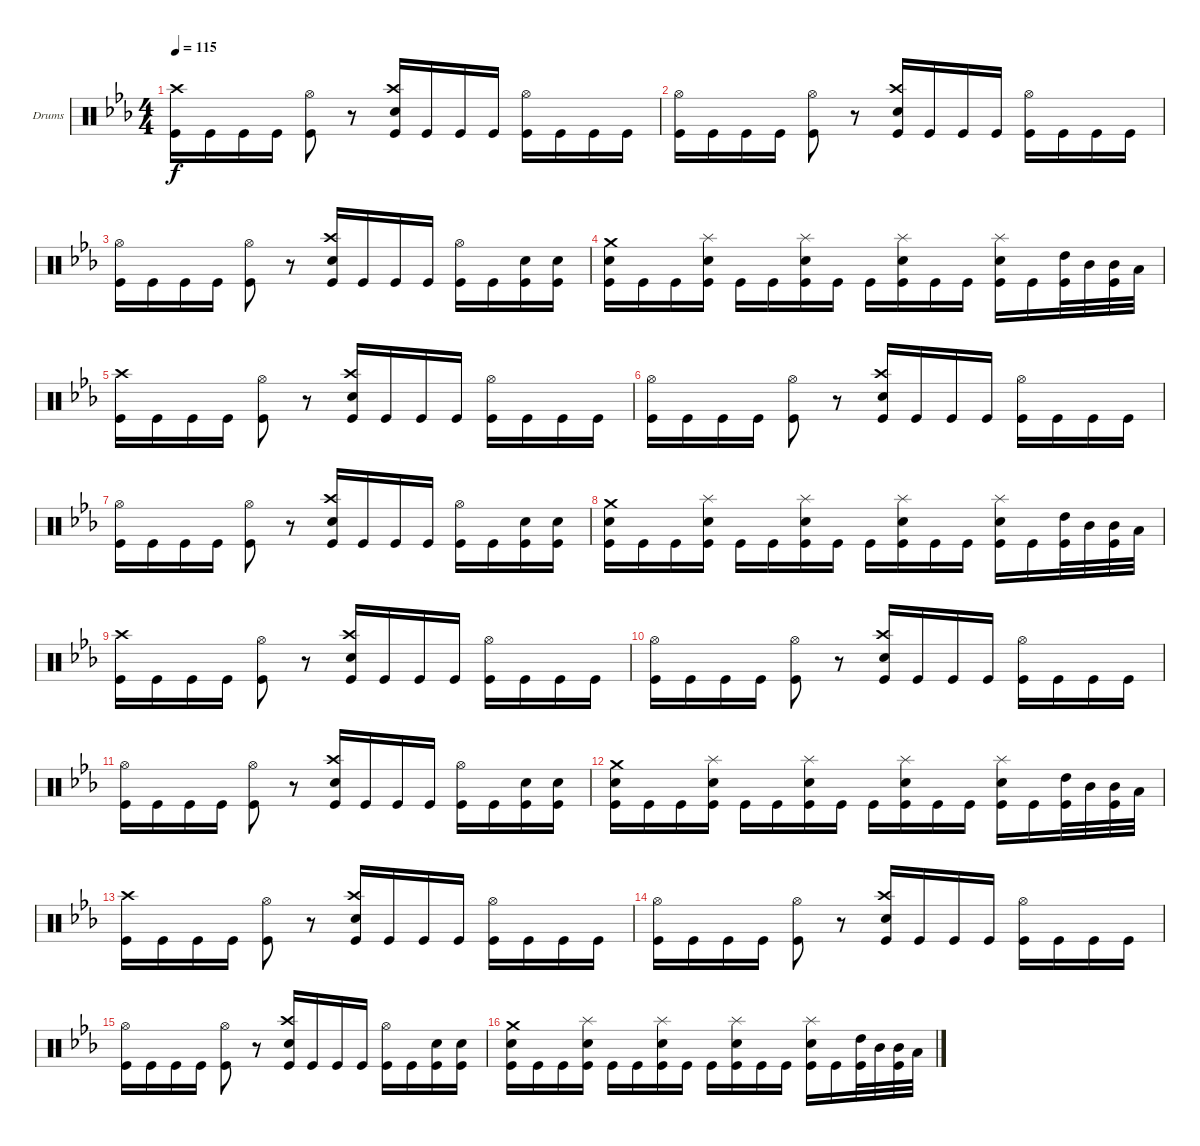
\bracketExtendMode groupsimilarinstruments
\firstSystemTrackNameOrientation horizontal
\otherSystemsTrackNameOrientation horizontal
\track ("Drumkit" "Drums") {instrument percussion}
\staff {score}
\articulation defaults
\ts (4 4)
\tempo 115
\clef neutral
\ks cminor
("Kick (hit)" "Crash high (hit)").16{dy f} "Kick (hit)".16 "Kick (hit)".16 "Kick (hit)".16 ("Kick (hit)" "Hi-Hat (open)").8 r.8 ("Kick (hit)" "Snare (hit) 2" "Crash high (hit)").16 "Kick (hit)".16 "Kick (hit)".16 "Kick (hit)".16 ("Kick (hit)" "Hi-Hat (open)").16 "Kick (hit)".16 "Kick (hit)".16 "Kick (hit)".16 |
("Kick (hit)" "Hi-Hat (open)").16 "Kick (hit)".16 "Kick (hit)".16 "Kick (hit)".16 ("Kick (hit)" "Hi-Hat (open)").8 r.8 ("Kick (hit)" "Snare (hit) 2" "Crash high (hit)").16 "Kick (hit)".16 "Kick (hit)".16 "Kick (hit)".16 ("Kick (hit)" "Hi-Hat (open)").16 "Kick (hit)".16 "Kick (hit)".16 "Kick (hit)".16 |
("Kick (hit)" "Hi-Hat (open)").16 "Kick (hit)".16 "Kick (hit)".16 "Kick (hit)".16 ("Kick (hit)" "Hi-Hat (open)").8 r.8 ("Kick (hit)" "Snare (hit) 2" "Crash high (hit)").16 "Kick (hit)".16 "Kick (hit)".16 "Kick (hit)".16 ("Kick (hit)" "Hi-Hat (open)").16 "Kick (hit)".16 ("Kick (hit)" "Snare (hit) 2").16 ("Kick (hit)" "Snare (hit) 2").16 |
("Kick (hit)" "Snare (hit) 2" "Crash medium (hit)").16 "Kick (hit)".16 "Kick (hit)".16 ("Kick (hit)" "Snare (hit) 2" "Splash (hit)").16 "Kick (hit)".16 "Kick (hit)".16 ("Kick (hit)" "Snare (hit) 2" "Splash (hit)").16 "Kick (hit)".16 "Kick (hit)".16 ("Kick (hit)" "Snare (hit) 2" "Splash (hit)").16 "Kick (hit)".16 "Kick (hit)".16 ("Kick (hit)" "Snare (hit) 2" "Splash (hit)").16 "Kick (hit)".16 ("Kick (hit)" "High Tom (hit)").32 "Mid Tom (hit)".32 ("Kick (hit)" "Mid Tom (hit)").32 "Low Tom (hit)".32 |
("Kick (hit)" "Crash high (hit)").16 "Kick (hit)".16 "Kick (hit)".16 "Kick (hit)".16 ("Kick (hit)" "Hi-Hat (open)").8 r.8 ("Kick (hit)" "Snare (hit) 2" "Crash high (hit)").16 "Kick (hit)".16 "Kick (hit)".16 "Kick (hit)".16 ("Kick (hit)" "Hi-Hat (open)").16 "Kick (hit)".16 "Kick (hit)".16 "Kick (hit)".16 |
("Kick (hit)" "Hi-Hat (open)").16 "Kick (hit)".16 "Kick (hit)".16 "Kick (hit)".16 ("Kick (hit)" "Hi-Hat (open)").8 r.8 ("Kick (hit)" "Snare (hit) 2" "Crash high (hit)").16 "Kick (hit)".16 "Kick (hit)".16 "Kick (hit)".16 ("Kick (hit)" "Hi-Hat (open)").16 "Kick (hit)".16 "Kick (hit)".16 "Kick (hit)".16 |
("Kick (hit)" "Hi-Hat (open)").16 "Kick (hit)".16 "Kick (hit)".16 "Kick (hit)".16 ("Kick (hit)" "Hi-Hat (open)").8 r.8 ("Kick (hit)" "Snare (hit) 2" "Crash high (hit)").16 "Kick (hit)".16 "Kick (hit)".16 "Kick (hit)".16 ("Kick (hit)" "Hi-Hat (open)").16 "Kick (hit)".16 ("Kick (hit)" "Snare (hit) 2").16 ("Kick (hit)" "Snare (hit) 2").16 |
("Kick (hit)" "Snare (hit) 2" "Crash medium (hit)").16 "Kick (hit)".16 "Kick (hit)".16 ("Kick (hit)" "Snare (hit) 2" "Splash (hit)").16 "Kick (hit)".16 "Kick (hit)".16 ("Kick (hit)" "Snare (hit) 2" "Splash (hit)").16 "Kick (hit)".16 "Kick (hit)".16 ("Kick (hit)" "Snare (hit) 2" "Splash (hit)").16 "Kick (hit)".16 "Kick (hit)".16 ("Kick (hit)" "Snare (hit) 2" "Splash (hit)").16 "Kick (hit)".16 ("Kick (hit)" "High Tom (hit)").32 "Mid Tom (hit)".32 ("Kick (hit)" "Mid Tom (hit)").32 "Low Tom (hit)".32 |
("Kick (hit)" "Crash high (hit)").16 "Kick (hit)".16 "Kick (hit)".16 "Kick (hit)".16 ("Kick (hit)" "Hi-Hat (open)").8 r.8 ("Kick (hit)" "Snare (hit) 2" "Crash high (hit)").16 "Kick (hit)".16 "Kick (hit)".16 "Kick (hit)".16 ("Kick (hit)" "Hi-Hat (open)").16 "Kick (hit)".16 "Kick (hit)".16 "Kick (hit)".16 |
("Kick (hit)" "Hi-Hat (open)").16 "Kick (hit)".16 "Kick (hit)".16 "Kick (hit)".16 ("Kick (hit)" "Hi-Hat (open)").8 r.8 ("Kick (hit)" "Snare (hit) 2" "Crash high (hit)").16 "Kick (hit)".16 "Kick (hit)".16 "Kick (hit)".16 ("Kick (hit)" "Hi-Hat (open)").16 "Kick (hit)".16 "Kick (hit)".16 "Kick (hit)".16 |
("Kick (hit)" "Hi-Hat (open)").16 "Kick (hit)".16 "Kick (hit)".16 "Kick (hit)".16 ("Kick (hit)" "Hi-Hat (open)").8 r.8 ("Kick (hit)" "Snare (hit) 2" "Crash high (hit)").16 "Kick (hit)".16 "Kick (hit)".16 "Kick (hit)".16 ("Kick (hit)" "Hi-Hat (open)").16 "Kick (hit)".16 ("Kick (hit)" "Snare (hit) 2").16 ("Kick (hit)" "Snare (hit) 2").16 |
("Kick (hit)" "Snare (hit) 2" "Crash medium (hit)").16 "Kick (hit)".16 "Kick (hit)".16 ("Kick (hit)" "Snare (hit) 2" "Splash (hit)").16 "Kick (hit)".16 "Kick (hit)".16 ("Kick (hit)" "Snare (hit) 2" "Splash (hit)").16 "Kick (hit)".16 "Kick (hit)".16 ("Kick (hit)" "Snare (hit) 2" "Splash (hit)").16 "Kick (hit)".16 "Kick (hit)".16 ("Kick (hit)" "Snare (hit) 2" "Splash (hit)").16 "Kick (hit)".16 ("Kick (hit)" "High Tom (hit)").32 "Mid Tom (hit)".32 ("Kick (hit)" "Mid Tom (hit)").32 "Low Tom (hit)".32 |
("Kick (hit)" "Crash high (hit)").16 "Kick (hit)".16 "Kick (hit)".16 "Kick (hit)".16 ("Kick (hit)" "Hi-Hat (open)").8 r.8 ("Kick (hit)" "Snare (hit) 2" "Crash high (hit)").16 "Kick (hit)".16 "Kick (hit)".16 "Kick (hit)".16 ("Kick (hit)" "Hi-Hat (open)").16 "Kick (hit)".16 "Kick (hit)".16 "Kick (hit)".16 |
("Kick (hit)" "Hi-Hat (open)").16 "Kick (hit)".16 "Kick (hit)".16 "Kick (hit)".16 ("Kick (hit)" "Hi-Hat (open)").8 r.8 ("Kick (hit)" "Snare (hit) 2" "Crash high (hit)").16 "Kick (hit)".16 "Kick (hit)".16 "Kick (hit)".16 ("Kick (hit)" "Hi-Hat (open)").16 "Kick (hit)".16 "Kick (hit)".16 "Kick (hit)".16 |
("Kick (hit)" "Hi-Hat (open)").16 "Kick (hit)".16 "Kick (hit)".16 "Kick (hit)".16 ("Kick (hit)" "Hi-Hat (open)").8 r.8 ("Kick (hit)" "Snare (hit) 2" "Crash high (hit)").16 "Kick (hit)".16 "Kick (hit)".16 "Kick (hit)".16 ("Kick (hit)" "Hi-Hat (open)").16 "Kick (hit)".16 ("Kick (hit)" "Snare (hit) 2").16 ("Kick (hit)" "Snare (hit) 2").16 |
("Kick (hit)" "Snare (hit) 2" "Crash medium (hit)").16 "Kick (hit)".16 "Kick (hit)".16 ("Kick (hit)" "Snare (hit) 2" "Splash (hit)").16 "Kick (hit)".16 "Kick (hit)".16 ("Kick (hit)" "Snare (hit) 2" "Splash (hit)").16 "Kick (hit)".16 "Kick (hit)".16 ("Kick (hit)" "Snare (hit) 2" "Splash (hit)").16 "Kick (hit)".16 "Kick (hit)".16 ("Kick (hit)" "Snare (hit) 2" "Splash (hit)").16 "Kick (hit)".16 ("Kick (hit)" "High Tom (hit)").32 "Mid Tom (hit)".32 ("Kick (hit)" "Mid Tom (hit)").32 "Low Tom (hit)".32
